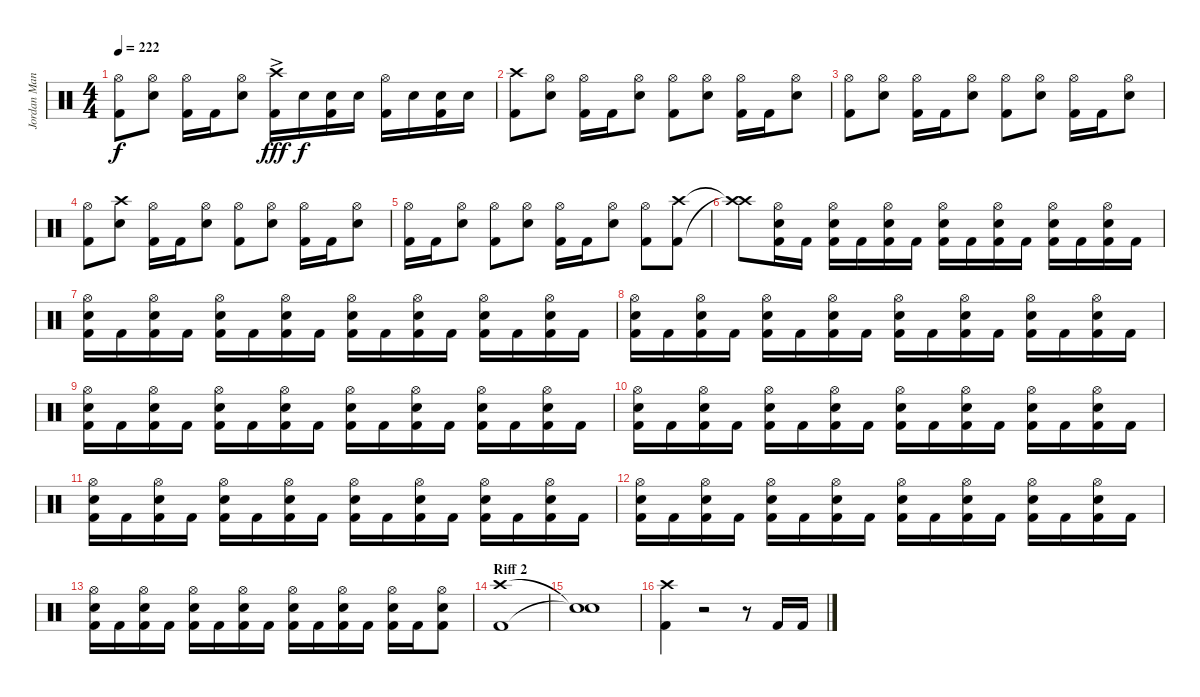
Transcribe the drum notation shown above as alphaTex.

\track ("Jordan Mancino (Drums)" "Jordan Man") {instrument percussion}
\staff {score}
\articulation defaults
\ts (4 4)
\tempo 222
\clef neutral
\ks c
("Hi-Hat (open)" "Kick (hit) 2").8{dy f} ("Hi-Hat (open)" "Snare (hit) 2").8 ("Hi-Hat (open)" "Kick (hit) 2").16 "Kick (hit) 2".16 ("Hi-Hat (open)" "Snare (hit) 2").8 ("Crash high (hit)" "Kick (hit) 2"{ac}).16{dy fff} "Snare (hit) 2".16{dy f} ("Kick (hit) 2" "Snare (hit) 2").16 "Snare (hit) 2".16 ("Hi-Hat (open)" "Kick (hit) 2").16 "Snare (hit) 2".16 ("Kick (hit) 2" "Snare (hit) 2").16 "Snare (hit) 2".16 |
("Crash high (hit)" "Kick (hit) 2").8{volume 16} ("Hi-Hat (open)" "Snare (hit) 2").8 ("Hi-Hat (open)" "Kick (hit) 2").16 "Kick (hit) 2".16 ("Hi-Hat (open)" "Snare (hit) 2").8 ("Hi-Hat (open)" "Kick (hit) 2").8 ("Hi-Hat (open)" "Snare (hit) 2").8 ("Hi-Hat (open)" "Kick (hit) 2").16 "Kick (hit) 2".16 ("Hi-Hat (open)" "Snare (hit) 2").8 |
("Hi-Hat (open)" "Kick (hit) 2").8 ("Hi-Hat (open)" "Snare (hit) 2").8 ("Hi-Hat (open)" "Kick (hit) 2").16 "Kick (hit) 2".16 ("Hi-Hat (open)" "Snare (hit) 2").8 ("Hi-Hat (open)" "Kick (hit) 2").8 ("Hi-Hat (open)" "Snare (hit) 2").8 ("Hi-Hat (open)" "Kick (hit) 2").16 "Kick (hit) 2".16 ("Hi-Hat (open)" "Snare (hit) 2").8 |
("Hi-Hat (open)" "Kick (hit) 2").8{volume 16} ("Crash high (hit)" "Snare (hit) 2").8 ("Hi-Hat (open)" "Kick (hit) 2").16 "Kick (hit) 2".16 ("Hi-Hat (open)" "Snare (hit) 2").8 ("Hi-Hat (open)" "Kick (hit) 2").8 ("Hi-Hat (open)" "Snare (hit) 2").8 ("Hi-Hat (open)" "Kick (hit) 2").16 "Kick (hit) 2".16 ("Hi-Hat (open)" "Snare (hit) 2").8 |
("Hi-Hat (open)" "Kick (hit) 2").16 "Kick (hit) 2".16 ("Hi-Hat (open)" "Snare (hit) 2").8 ("Hi-Hat (open)" "Kick (hit) 2").8 ("Hi-Hat (open)" "Snare (hit) 2").8 ("Hi-Hat (open)" "Kick (hit) 2").16 "Kick (hit) 2".16 ("Hi-Hat (open)" "Snare (hit) 2").8 ("Hi-Hat (open)" "Kick (hit) 2").8 ("Crash high (hit)" "Kick (hit) 2").8 |
("Crash high (hit)"{t} "Crash high (hit)"{t}).8 ("Hi-Hat (open)" "Snare (hit) 2" "Kick (hit) 2").16 "Kick (hit) 2".16 ("Hi-Hat (open)" "Snare (hit) 2" "Kick (hit) 2").16 "Kick (hit) 2".16 ("Hi-Hat (open)" "Snare (hit) 2" "Kick (hit) 2").16 "Kick (hit) 2".16 ("Hi-Hat (open)" "Snare (hit) 2" "Kick (hit) 2").16 "Kick (hit) 2".16 ("Hi-Hat (open)" "Snare (hit) 2" "Kick (hit) 2").16 "Kick (hit) 2".16 ("Hi-Hat (open)" "Snare (hit) 2" "Kick (hit) 2").16 "Kick (hit) 2".16 ("Hi-Hat (open)" "Snare (hit) 2" "Kick (hit) 2").16 "Kick (hit) 2".16 |
("Hi-Hat (open)" "Snare (hit) 2" "Kick (hit) 2").16 "Kick (hit) 2".16 ("Hi-Hat (open)" "Snare (hit) 2" "Kick (hit) 2").16 "Kick (hit) 2".16 ("Hi-Hat (open)" "Snare (hit) 2" "Kick (hit) 2").16 "Kick (hit) 2".16 ("Hi-Hat (open)" "Snare (hit) 2" "Kick (hit) 2").16 "Kick (hit) 2".16 ("Hi-Hat (open)" "Snare (hit) 2" "Kick (hit) 2").16 "Kick (hit) 2".16 ("Hi-Hat (open)" "Snare (hit) 2" "Kick (hit) 2").16 "Kick (hit) 2".16 ("Hi-Hat (open)" "Snare (hit) 2" "Kick (hit) 2").16 "Kick (hit) 2".16 ("Hi-Hat (open)" "Snare (hit) 2" "Kick (hit) 2").16 "Kick (hit) 2".16 |
("Hi-Hat (open)" "Snare (hit) 2" "Kick (hit) 2").16 "Kick (hit) 2".16 ("Hi-Hat (open)" "Snare (hit) 2" "Kick (hit) 2").16 "Kick (hit) 2".16 ("Hi-Hat (open)" "Snare (hit) 2" "Kick (hit) 2").16 "Kick (hit) 2".16 ("Hi-Hat (open)" "Snare (hit) 2" "Kick (hit) 2").16 "Kick (hit) 2".16 ("Hi-Hat (open)" "Snare (hit) 2" "Kick (hit) 2").16 "Kick (hit) 2".16 ("Hi-Hat (open)" "Snare (hit) 2" "Kick (hit) 2").16 "Kick (hit) 2".16 ("Hi-Hat (open)" "Snare (hit) 2" "Kick (hit) 2").16 "Kick (hit) 2".16 ("Hi-Hat (open)" "Snare (hit) 2" "Kick (hit) 2").16 "Kick (hit) 2".16 |
("Hi-Hat (open)" "Snare (hit) 2" "Kick (hit) 2").16 "Kick (hit) 2".16 ("Hi-Hat (open)" "Snare (hit) 2" "Kick (hit) 2").16 "Kick (hit) 2".16 ("Hi-Hat (open)" "Snare (hit) 2" "Kick (hit) 2").16 "Kick (hit) 2".16 ("Hi-Hat (open)" "Snare (hit) 2" "Kick (hit) 2").16 "Kick (hit) 2".16 ("Hi-Hat (open)" "Snare (hit) 2" "Kick (hit) 2").16 "Kick (hit) 2".16 ("Hi-Hat (open)" "Snare (hit) 2" "Kick (hit) 2").16 "Kick (hit) 2".16 ("Hi-Hat (open)" "Snare (hit) 2" "Kick (hit) 2").16 "Kick (hit) 2".16 ("Hi-Hat (open)" "Snare (hit) 2" "Kick (hit) 2").16 "Kick (hit) 2".16 |
("Hi-Hat (open)" "Snare (hit) 2" "Kick (hit) 2").16 "Kick (hit) 2".16 ("Hi-Hat (open)" "Snare (hit) 2" "Kick (hit) 2").16 "Kick (hit) 2".16 ("Hi-Hat (open)" "Snare (hit) 2" "Kick (hit) 2").16 "Kick (hit) 2".16 ("Hi-Hat (open)" "Snare (hit) 2" "Kick (hit) 2").16 "Kick (hit) 2".16 ("Hi-Hat (open)" "Snare (hit) 2" "Kick (hit) 2").16 "Kick (hit) 2".16 ("Hi-Hat (open)" "Snare (hit) 2" "Kick (hit) 2").16 "Kick (hit) 2".16 ("Hi-Hat (open)" "Snare (hit) 2" "Kick (hit) 2").16 "Kick (hit) 2".16 ("Hi-Hat (open)" "Snare (hit) 2" "Kick (hit) 2").16 "Kick (hit) 2".16 |
("Hi-Hat (open)" "Snare (hit) 2" "Kick (hit) 2").16 "Kick (hit) 2".16 ("Hi-Hat (open)" "Snare (hit) 2" "Kick (hit) 2").16 "Kick (hit) 2".16 ("Hi-Hat (open)" "Snare (hit) 2" "Kick (hit) 2").16 "Kick (hit) 2".16 ("Hi-Hat (open)" "Snare (hit) 2" "Kick (hit) 2").16 "Kick (hit) 2".16 ("Hi-Hat (open)" "Snare (hit) 2" "Kick (hit) 2").16 "Kick (hit) 2".16 ("Hi-Hat (open)" "Snare (hit) 2" "Kick (hit) 2").16 "Kick (hit) 2".16 ("Hi-Hat (open)" "Snare (hit) 2" "Kick (hit) 2").16 "Kick (hit) 2".16 ("Hi-Hat (open)" "Snare (hit) 2" "Kick (hit) 2").16 "Kick (hit) 2".16 |
("Hi-Hat (open)" "Snare (hit) 2" "Kick (hit) 2").16 "Kick (hit) 2".16 ("Hi-Hat (open)" "Snare (hit) 2" "Kick (hit) 2").16 "Kick (hit) 2".16 ("Hi-Hat (open)" "Snare (hit) 2" "Kick (hit) 2").16 "Kick (hit) 2".16 ("Hi-Hat (open)" "Snare (hit) 2" "Kick (hit) 2").16 "Kick (hit) 2".16 ("Hi-Hat (open)" "Snare (hit) 2" "Kick (hit) 2").16 "Kick (hit) 2".16 ("Hi-Hat (open)" "Snare (hit) 2" "Kick (hit) 2").16 "Kick (hit) 2".16 ("Hi-Hat (open)" "Snare (hit) 2" "Kick (hit) 2").16 "Kick (hit) 2".16 ("Hi-Hat (open)" "Snare (hit) 2" "Kick (hit) 2").16 "Kick (hit) 2".16 |
("Hi-Hat (open)" "Snare (hit) 2" "Kick (hit) 2").16 "Kick (hit) 2".16 ("Hi-Hat (open)" "Snare (hit) 2" "Kick (hit) 2").16 "Kick (hit) 2".16 ("Hi-Hat (open)" "Snare (hit) 2" "Kick (hit) 2").16 "Kick (hit) 2".16 ("Hi-Hat (open)" "Snare (hit) 2" "Kick (hit) 2").16 "Kick (hit) 2".16 ("Hi-Hat (open)" "Snare (hit) 2" "Kick (hit) 2").16 "Kick (hit) 2".16 ("Hi-Hat (open)" "Snare (hit) 2" "Kick (hit) 2").16 "Kick (hit) 2".16 ("Hi-Hat (open)" "Snare (hit) 2" "Kick (hit) 2").16 "Kick (hit) 2".16 ("Hi-Hat (open)" "Snare (hit) 2" "Kick (hit) 2").8 |
\section ("" "Riff 2")
("Crash high (hit)" "Kick (hit) 2").1 |
("Snare (hit)"{t} "Snare (hit)"{t}).1 |
("Crash high (hit)" "Kick (hit) 2").4 r.2{volume 0} r.8 "Kick (hit) 2".16{volume 16} "Kick (hit) 2".16
